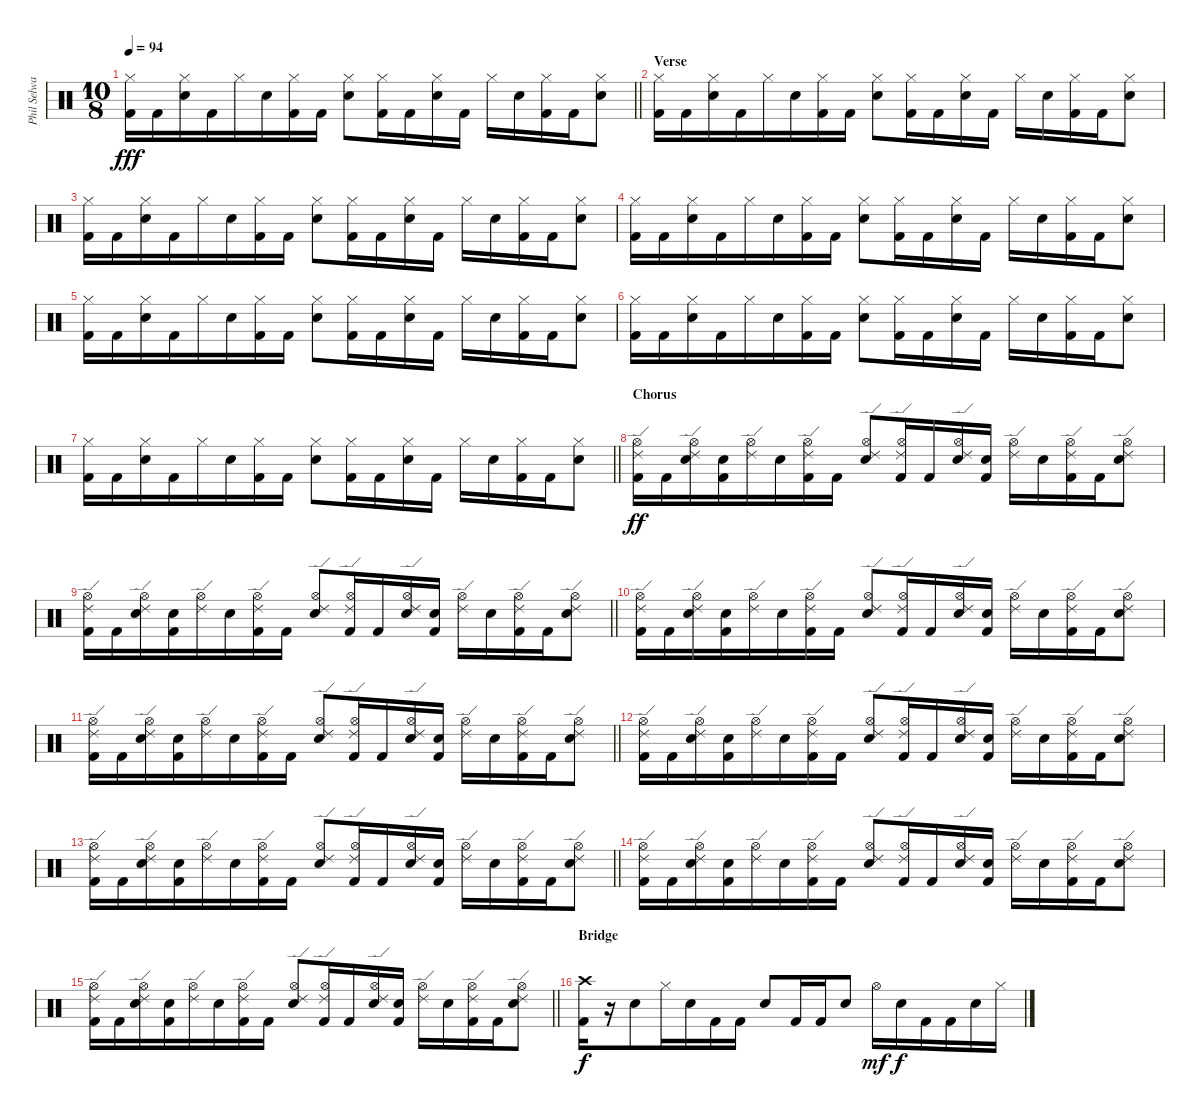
\track ("Phil Selway" "Phil Selwa") {instrument percussion}
\staff {score}
\articulation defaults
\ts (10 8)
\tempo 94
\clef neutral
\barLineRight lightlight
\ks c
("Hi-Hat (closed)" "Kick (hit) 2").16{dy fff} "Kick (hit) 2".16 ("Hi-Hat (closed)" "Electric Snare (hit)").16 "Kick (hit) 2".16 "Hi-Hat (closed)".16 "Electric Snare (hit)".16 ("Hi-Hat (closed)" "Kick (hit) 2").16 "Kick (hit) 2".16 ("Hi-Hat (closed)" "Electric Snare (hit)").8 ("Hi-Hat (closed)" "Kick (hit) 2").16 "Kick (hit) 2".16 ("Hi-Hat (closed)" "Electric Snare (hit)").16 "Kick (hit) 2".16 "Hi-Hat (closed)".16 "Electric Snare (hit)".16 ("Hi-Hat (closed)" "Kick (hit) 2").16 "Kick (hit) 2".16 ("Hi-Hat (closed)" "Electric Snare (hit)").8 |
\section ("" "Verse")
("Hi-Hat (closed)" "Kick (hit) 2").16 "Kick (hit) 2".16 ("Hi-Hat (closed)" "Electric Snare (hit)").16 "Kick (hit) 2".16 "Hi-Hat (closed)".16 "Electric Snare (hit)".16 ("Hi-Hat (closed)" "Kick (hit) 2").16 "Kick (hit) 2".16 ("Hi-Hat (closed)" "Electric Snare (hit)").8 ("Hi-Hat (closed)" "Kick (hit) 2").16 "Kick (hit) 2".16 ("Hi-Hat (closed)" "Electric Snare (hit)").16 "Kick (hit) 2".16 "Hi-Hat (closed)".16 "Electric Snare (hit)".16 ("Hi-Hat (closed)" "Kick (hit) 2").16 "Kick (hit) 2".16 ("Hi-Hat (closed)" "Electric Snare (hit)").8 |
("Hi-Hat (closed)" "Kick (hit) 2").16 "Kick (hit) 2".16 ("Hi-Hat (closed)" "Electric Snare (hit)").16 "Kick (hit) 2".16 "Hi-Hat (closed)".16 "Electric Snare (hit)".16 ("Hi-Hat (closed)" "Kick (hit) 2").16 "Kick (hit) 2".16 ("Hi-Hat (closed)" "Electric Snare (hit)").8 ("Hi-Hat (closed)" "Kick (hit) 2").16 "Kick (hit) 2".16 ("Hi-Hat (closed)" "Electric Snare (hit)").16 "Kick (hit) 2".16 "Hi-Hat (closed)".16 "Electric Snare (hit)".16 ("Hi-Hat (closed)" "Kick (hit) 2").16 "Kick (hit) 2".16 ("Hi-Hat (closed)" "Electric Snare (hit)").8 |
("Hi-Hat (closed)" "Kick (hit) 2").16 "Kick (hit) 2".16 ("Hi-Hat (closed)" "Electric Snare (hit)").16 "Kick (hit) 2".16 "Hi-Hat (closed)".16 "Electric Snare (hit)".16 ("Hi-Hat (closed)" "Kick (hit) 2").16 "Kick (hit) 2".16 ("Hi-Hat (closed)" "Electric Snare (hit)").8 ("Hi-Hat (closed)" "Kick (hit) 2").16 "Kick (hit) 2".16 ("Hi-Hat (closed)" "Electric Snare (hit)").16 "Kick (hit) 2".16 "Hi-Hat (closed)".16 "Electric Snare (hit)".16 ("Hi-Hat (closed)" "Kick (hit) 2").16 "Kick (hit) 2".16 ("Hi-Hat (closed)" "Electric Snare (hit)").8 |
("Hi-Hat (closed)" "Kick (hit) 2").16 "Kick (hit) 2".16 ("Hi-Hat (closed)" "Electric Snare (hit)").16 "Kick (hit) 2".16 "Hi-Hat (closed)".16 "Electric Snare (hit)".16 ("Hi-Hat (closed)" "Kick (hit) 2").16 "Kick (hit) 2".16 ("Hi-Hat (closed)" "Electric Snare (hit)").8 ("Hi-Hat (closed)" "Kick (hit) 2").16 "Kick (hit) 2".16 ("Hi-Hat (closed)" "Electric Snare (hit)").16 "Kick (hit) 2".16 "Hi-Hat (closed)".16 "Electric Snare (hit)".16 ("Hi-Hat (closed)" "Kick (hit) 2").16 "Kick (hit) 2".16 ("Hi-Hat (closed)" "Electric Snare (hit)").8 |
("Hi-Hat (closed)" "Kick (hit) 2").16 "Kick (hit) 2".16 ("Hi-Hat (closed)" "Electric Snare (hit)").16 "Kick (hit) 2".16 "Hi-Hat (closed)".16 "Electric Snare (hit)".16 ("Hi-Hat (closed)" "Kick (hit) 2").16 "Kick (hit) 2".16 ("Hi-Hat (closed)" "Electric Snare (hit)").8 ("Hi-Hat (closed)" "Kick (hit) 2").16 "Kick (hit) 2".16 ("Hi-Hat (closed)" "Electric Snare (hit)").16 "Kick (hit) 2".16 "Hi-Hat (closed)".16 "Electric Snare (hit)".16 ("Hi-Hat (closed)" "Kick (hit) 2").16 "Kick (hit) 2".16 ("Hi-Hat (closed)" "Electric Snare (hit)").8 |
\barLineRight lightlight
("Hi-Hat (closed)" "Kick (hit) 2").16 "Kick (hit) 2".16 ("Hi-Hat (closed)" "Electric Snare (hit)").16 "Kick (hit) 2".16 "Hi-Hat (closed)".16 "Electric Snare (hit)".16 ("Hi-Hat (closed)" "Kick (hit) 2").16 "Kick (hit) 2".16 ("Hi-Hat (closed)" "Electric Snare (hit)").8 ("Hi-Hat (closed)" "Kick (hit) 2").16 "Kick (hit) 2".16 ("Hi-Hat (closed)" "Electric Snare (hit)").16 "Kick (hit) 2".16 "Hi-Hat (closed)".16 "Electric Snare (hit)".16 ("Hi-Hat (closed)" "Kick (hit) 2").16 "Kick (hit) 2".16 ("Hi-Hat (closed)" "Electric Snare (hit)").8 |
\section ("" "Chorus")
("Hi-Hat (open)" "Ride (edge) 2" "Kick (hit) 2").16{dy ff} "Kick (hit) 2".16 ("Hi-Hat (open)" "Ride (edge) 2" "Electric Snare (hit)").16 ("Electric Snare (hit)" "Kick (hit) 2").16 ("Hi-Hat (open)" "Ride (edge) 2").16 "Electric Snare (hit)".16 ("Hi-Hat (open)" "Ride (edge) 2" "Kick (hit) 2").16 "Kick (hit) 2".16 ("Hi-Hat (open)" "Ride (edge) 2" "Electric Snare (hit)").8 ("Hi-Hat (open)" "Ride (edge) 2" "Kick (hit) 2").16 "Kick (hit) 2".16 ("Hi-Hat (open)" "Ride (edge) 2" "Electric Snare (hit)").16 ("Electric Snare (hit)" "Kick (hit) 2").16 ("Hi-Hat (open)" "Ride (edge) 2").16 "Electric Snare (hit)".16 ("Hi-Hat (open)" "Ride (edge) 2" "Kick (hit) 2").16 "Kick (hit) 2".16 ("Hi-Hat (open)" "Ride (edge) 2" "Electric Snare (hit)").8 |
\barLineRight lightlight
("Hi-Hat (open)" "Ride (edge) 2" "Kick (hit) 2").16 "Kick (hit) 2".16 ("Hi-Hat (open)" "Ride (edge) 2" "Electric Snare (hit)").16 ("Electric Snare (hit)" "Kick (hit) 2").16 ("Hi-Hat (open)" "Ride (edge) 2").16 "Electric Snare (hit)".16 ("Hi-Hat (open)" "Ride (edge) 2" "Kick (hit) 2").16 "Kick (hit) 2".16 ("Hi-Hat (open)" "Ride (edge) 2" "Electric Snare (hit)").8 ("Hi-Hat (open)" "Ride (edge) 2" "Kick (hit) 2").16 "Kick (hit) 2".16 ("Hi-Hat (open)" "Ride (edge) 2" "Electric Snare (hit)").16 ("Electric Snare (hit)" "Kick (hit) 2").16 ("Hi-Hat (open)" "Ride (edge) 2").16 "Electric Snare (hit)".16 ("Hi-Hat (open)" "Ride (edge) 2" "Kick (hit) 2").16 "Kick (hit) 2".16 ("Hi-Hat (open)" "Ride (edge) 2" "Electric Snare (hit)").8 |
("Hi-Hat (open)" "Ride (edge) 2" "Kick (hit) 2").16 "Kick (hit) 2".16 ("Hi-Hat (open)" "Ride (edge) 2" "Electric Snare (hit)").16 ("Electric Snare (hit)" "Kick (hit) 2").16 ("Hi-Hat (open)" "Ride (edge) 2").16 "Electric Snare (hit)".16 ("Hi-Hat (open)" "Ride (edge) 2" "Kick (hit) 2").16 "Kick (hit) 2".16 ("Hi-Hat (open)" "Ride (edge) 2" "Electric Snare (hit)").8 ("Hi-Hat (open)" "Ride (edge) 2" "Kick (hit) 2").16 "Kick (hit) 2".16 ("Hi-Hat (open)" "Ride (edge) 2" "Electric Snare (hit)").16 ("Electric Snare (hit)" "Kick (hit) 2").16 ("Hi-Hat (open)" "Ride (edge) 2").16 "Electric Snare (hit)".16 ("Hi-Hat (open)" "Ride (edge) 2" "Kick (hit) 2").16 "Kick (hit) 2".16 ("Hi-Hat (open)" "Ride (edge) 2" "Electric Snare (hit)").8 |
\barLineRight lightlight
("Hi-Hat (open)" "Ride (edge) 2" "Kick (hit) 2").16 "Kick (hit) 2".16 ("Hi-Hat (open)" "Ride (edge) 2" "Electric Snare (hit)").16 ("Electric Snare (hit)" "Kick (hit) 2").16 ("Hi-Hat (open)" "Ride (edge) 2").16 "Electric Snare (hit)".16 ("Hi-Hat (open)" "Ride (edge) 2" "Kick (hit) 2").16 "Kick (hit) 2".16 ("Hi-Hat (open)" "Ride (edge) 2" "Electric Snare (hit)").8 ("Hi-Hat (open)" "Ride (edge) 2" "Kick (hit) 2").16 "Kick (hit) 2".16 ("Hi-Hat (open)" "Ride (edge) 2" "Electric Snare (hit)").16 ("Electric Snare (hit)" "Kick (hit) 2").16 ("Hi-Hat (open)" "Ride (edge) 2").16 "Electric Snare (hit)".16 ("Hi-Hat (open)" "Ride (edge) 2" "Kick (hit) 2").16 "Kick (hit) 2".16 ("Hi-Hat (open)" "Ride (edge) 2" "Electric Snare (hit)").8 |
("Hi-Hat (open)" "Ride (edge) 2" "Kick (hit) 2").16 "Kick (hit) 2".16 ("Hi-Hat (open)" "Ride (edge) 2" "Electric Snare (hit)").16 ("Electric Snare (hit)" "Kick (hit) 2").16 ("Hi-Hat (open)" "Ride (edge) 2").16 "Electric Snare (hit)".16 ("Hi-Hat (open)" "Ride (edge) 2" "Kick (hit) 2").16 "Kick (hit) 2".16 ("Hi-Hat (open)" "Ride (edge) 2" "Electric Snare (hit)").8 ("Hi-Hat (open)" "Ride (edge) 2" "Kick (hit) 2").16 "Kick (hit) 2".16 ("Hi-Hat (open)" "Ride (edge) 2" "Electric Snare (hit)").16 ("Electric Snare (hit)" "Kick (hit) 2").16 ("Hi-Hat (open)" "Ride (edge) 2").16 "Electric Snare (hit)".16 ("Hi-Hat (open)" "Ride (edge) 2" "Kick (hit) 2").16 "Kick (hit) 2".16 ("Hi-Hat (open)" "Ride (edge) 2" "Electric Snare (hit)").8 |
\barLineRight lightlight
("Hi-Hat (open)" "Ride (edge) 2" "Kick (hit) 2").16 "Kick (hit) 2".16 ("Hi-Hat (open)" "Ride (edge) 2" "Electric Snare (hit)").16 ("Electric Snare (hit)" "Kick (hit) 2").16 ("Hi-Hat (open)" "Ride (edge) 2").16 "Electric Snare (hit)".16 ("Hi-Hat (open)" "Ride (edge) 2" "Kick (hit) 2").16 "Kick (hit) 2".16 ("Hi-Hat (open)" "Ride (edge) 2" "Electric Snare (hit)").8 ("Hi-Hat (open)" "Ride (edge) 2" "Kick (hit) 2").16 "Kick (hit) 2".16 ("Hi-Hat (open)" "Ride (edge) 2" "Electric Snare (hit)").16 ("Electric Snare (hit)" "Kick (hit) 2").16 ("Hi-Hat (open)" "Ride (edge) 2").16 "Electric Snare (hit)".16 ("Hi-Hat (open)" "Ride (edge) 2" "Kick (hit) 2").16 "Kick (hit) 2".16 ("Hi-Hat (open)" "Ride (edge) 2" "Electric Snare (hit)").8 |
("Hi-Hat (open)" "Ride (edge) 2" "Kick (hit) 2").16 "Kick (hit) 2".16 ("Hi-Hat (open)" "Ride (edge) 2" "Electric Snare (hit)").16 ("Electric Snare (hit)" "Kick (hit) 2").16 ("Hi-Hat (open)" "Ride (edge) 2").16 "Electric Snare (hit)".16 ("Hi-Hat (open)" "Ride (edge) 2" "Kick (hit) 2").16 "Kick (hit) 2".16 ("Hi-Hat (open)" "Ride (edge) 2" "Electric Snare (hit)").8 ("Hi-Hat (open)" "Ride (edge) 2" "Kick (hit) 2").16 "Kick (hit) 2".16 ("Hi-Hat (open)" "Ride (edge) 2" "Electric Snare (hit)").16 ("Electric Snare (hit)" "Kick (hit) 2").16 ("Hi-Hat (open)" "Ride (edge) 2").16 "Electric Snare (hit)".16 ("Hi-Hat (open)" "Ride (edge) 2" "Kick (hit) 2").16 "Kick (hit) 2".16 ("Hi-Hat (open)" "Ride (edge) 2" "Electric Snare (hit)").8 |
\barLineRight lightlight
("Hi-Hat (open)" "Ride (edge) 2" "Kick (hit) 2").16 "Kick (hit) 2".16 ("Hi-Hat (open)" "Ride (edge) 2" "Electric Snare (hit)").16 ("Electric Snare (hit)" "Kick (hit) 2").16 ("Hi-Hat (open)" "Ride (edge) 2").16 "Electric Snare (hit)".16 ("Hi-Hat (open)" "Ride (edge) 2" "Kick (hit) 2").16 "Kick (hit) 2".16 ("Hi-Hat (open)" "Ride (edge) 2" "Electric Snare (hit)").8 ("Hi-Hat (open)" "Ride (edge) 2" "Kick (hit) 2").16 "Kick (hit) 2".16 ("Hi-Hat (open)" "Ride (edge) 2" "Electric Snare (hit)").16 ("Electric Snare (hit)" "Kick (hit) 2").16 ("Hi-Hat (open)" "Ride (edge) 2").16 "Electric Snare (hit)".16 ("Hi-Hat (open)" "Ride (edge) 2" "Kick (hit) 2").16 "Kick (hit) 2".16 ("Hi-Hat (open)" "Ride (edge) 2" "Electric Snare (hit)").8 |
\section ("" "Bridge")
("Crash high (hit)" "Kick (hit) 2").16{dy f} r.16 "Electric Snare (hit)".8 "Hi-Hat (closed)".16 "Electric Snare (hit)".16 "Kick (hit) 2".16 "Kick (hit) 2".16 "Electric Snare (hit)".8 "Kick (hit) 2".16 "Kick (hit) 2".16 "Electric Snare (hit)".8 "Hi-Hat (open)".16{dy mf} "Electric Snare (hit)".16{dy f} "Kick (hit) 2".16 "Kick (hit) 2".16 "Electric Snare (hit)".16 "Hi-Hat (closed)".16
